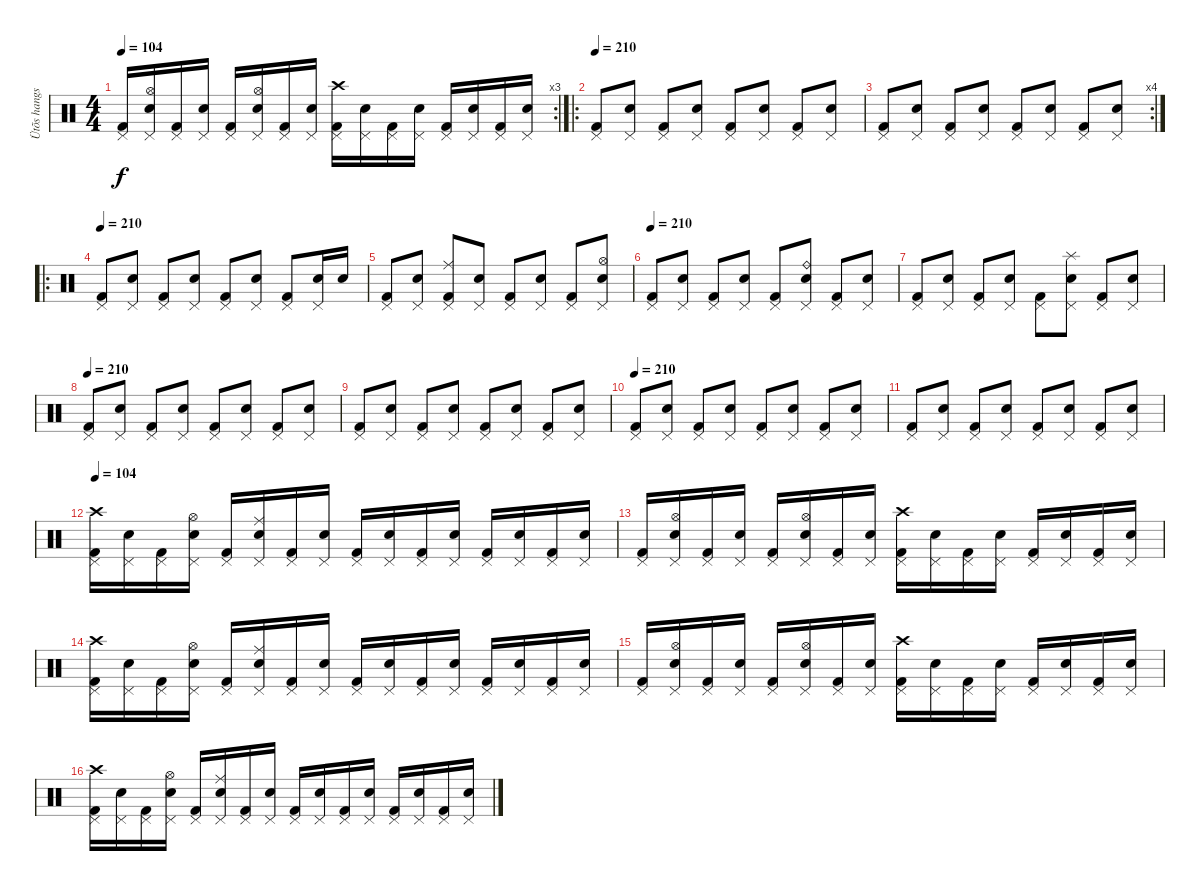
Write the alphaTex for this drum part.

\track ("Ütõs hangszer" "Ütõs hangs") {instrument percussion}
\staff {score}
\articulation defaults
\rc 3
\ts (4 4)
\tempo 104
\clef neutral
\ks c
("Pedal Hi-Hat (hit)" "Kick (hit) 2").16{dy f} ("Hi-Hat (open)" "Pedal Hi-Hat (hit)" "Snare (hit) 2").16 ("Pedal Hi-Hat (hit)" "Kick (hit) 2").16 ("Pedal Hi-Hat (hit)" "Snare (hit) 2").16 ("Pedal Hi-Hat (hit)" "Kick (hit) 2").16 ("Hi-Hat (open)" "Pedal Hi-Hat (hit)" "Snare (hit) 2").16 ("Pedal Hi-Hat (hit)" "Kick (hit) 2").16 ("Pedal Hi-Hat (hit)" "Snare (hit) 2").16 ("Crash high (hit)" "Pedal Hi-Hat (hit)" "Kick (hit) 2").16 ("Pedal Hi-Hat (hit)" "Snare (hit) 2").16 ("Pedal Hi-Hat (hit)" "Kick (hit) 2").16 ("Pedal Hi-Hat (hit)" "Snare (hit) 2").16 ("Pedal Hi-Hat (hit)" "Kick (hit) 2").16 ("Pedal Hi-Hat (hit)" "Snare (hit) 2").16 ("Pedal Hi-Hat (hit)" "Kick (hit) 2").16 ("Pedal Hi-Hat (hit)" "Snare (hit) 2").16 |
\ro
\tempo 210
("Pedal Hi-Hat (hit)" "Kick (hit) 2").8 ("Pedal Hi-Hat (hit)" "Snare (hit) 2").8 ("Pedal Hi-Hat (hit)" "Kick (hit) 2").8 ("Pedal Hi-Hat (hit)" "Snare (hit) 2").8 ("Pedal Hi-Hat (hit)" "Kick (hit) 2").8 ("Pedal Hi-Hat (hit)" "Snare (hit) 2").8 ("Pedal Hi-Hat (hit)" "Kick (hit) 2").8 ("Pedal Hi-Hat (hit)" "Snare (hit) 2").8 |
\rc 4
("Pedal Hi-Hat (hit)" "Kick (hit) 2").8 ("Pedal Hi-Hat (hit)" "Snare (hit) 2").8 ("Pedal Hi-Hat (hit)" "Kick (hit) 2").8 ("Pedal Hi-Hat (hit)" "Snare (hit) 2").8 ("Pedal Hi-Hat (hit)" "Kick (hit) 2").8 ("Pedal Hi-Hat (hit)" "Snare (hit) 2").8 ("Pedal Hi-Hat (hit)" "Kick (hit) 2").8 ("Pedal Hi-Hat (hit)" "Snare (hit) 2").8 |
\ro
\tempo 210
("Pedal Hi-Hat (hit)" "Kick (hit) 2").8 ("Pedal Hi-Hat (hit)" "Snare (hit) 2").8 ("Pedal Hi-Hat (hit)" "Kick (hit) 2").8 ("Pedal Hi-Hat (hit)" "Snare (hit) 2").8 ("Pedal Hi-Hat (hit)" "Kick (hit) 2").8 ("Pedal Hi-Hat (hit)" "Snare (hit) 2").8 ("Pedal Hi-Hat (hit)" "Kick (hit) 2").8 ("Pedal Hi-Hat (hit)" "Snare (hit) 2").16 "Snare (hit) 2".16 |
("Pedal Hi-Hat (hit)" "Kick (hit) 2").8 ("Pedal Hi-Hat (hit)" "Snare (hit) 2").8 ("Ride (middle)" "Pedal Hi-Hat (hit)" "Kick (hit) 2").8 ("Pedal Hi-Hat (hit)" "Snare (hit) 2").8 ("Pedal Hi-Hat (hit)" "Kick (hit) 2").8 ("Pedal Hi-Hat (hit)" "Snare (hit) 2").8 ("Pedal Hi-Hat (hit)" "Kick (hit) 2").8 ("Hi-Hat (open)" "Pedal Hi-Hat (hit)" "Snare (hit) 2").8 |
\tempo 210
("Pedal Hi-Hat (hit)" "Kick (hit) 2").8 ("Pedal Hi-Hat (hit)" "Snare (hit) 2").8 ("Pedal Hi-Hat (hit)" "Kick (hit) 2").8 ("Pedal Hi-Hat (hit)" "Snare (hit) 2").8 ("Pedal Hi-Hat (hit)" "Kick (hit) 2").8 ("Ride (bell)" "Pedal Hi-Hat (hit)" "Snare (hit) 2").8 ("Pedal Hi-Hat (hit)" "Kick (hit) 2").8 ("Pedal Hi-Hat (hit)" "Snare (hit) 2").8 |
("Pedal Hi-Hat (hit)" "Kick (hit) 2").8 ("Pedal Hi-Hat (hit)" "Snare (hit) 2").8 ("Pedal Hi-Hat (hit)" "Kick (hit) 2").8 ("Pedal Hi-Hat (hit)" "Snare (hit) 2").8 ("Pedal Hi-Hat (hit)" "Kick (hit) 2").8 ("Splash (hit)" "Pedal Hi-Hat (hit)" "Snare (hit) 2").8 ("Pedal Hi-Hat (hit)" "Kick (hit) 2").8 ("Pedal Hi-Hat (hit)" "Snare (hit) 2").8 |
\tempo 210
("Pedal Hi-Hat (hit)" "Kick (hit) 2").8 ("Pedal Hi-Hat (hit)" "Snare (hit) 2").8 ("Pedal Hi-Hat (hit)" "Kick (hit) 2").8 ("Pedal Hi-Hat (hit)" "Snare (hit) 2").8 ("Pedal Hi-Hat (hit)" "Kick (hit) 2").8 ("Pedal Hi-Hat (hit)" "Snare (hit) 2").8 ("Pedal Hi-Hat (hit)" "Kick (hit) 2").8 ("Pedal Hi-Hat (hit)" "Snare (hit) 2").8 |
("Pedal Hi-Hat (hit)" "Kick (hit) 2").8 ("Pedal Hi-Hat (hit)" "Snare (hit) 2").8 ("Pedal Hi-Hat (hit)" "Kick (hit) 2").8 ("Pedal Hi-Hat (hit)" "Snare (hit) 2").8 ("Pedal Hi-Hat (hit)" "Kick (hit) 2").8 ("Pedal Hi-Hat (hit)" "Snare (hit) 2").8 ("Pedal Hi-Hat (hit)" "Kick (hit) 2").8 ("Pedal Hi-Hat (hit)" "Snare (hit) 2").8 |
\tempo 210
("Pedal Hi-Hat (hit)" "Kick (hit) 2").8 ("Pedal Hi-Hat (hit)" "Snare (hit) 2").8 ("Pedal Hi-Hat (hit)" "Kick (hit) 2").8 ("Pedal Hi-Hat (hit)" "Snare (hit) 2").8 ("Pedal Hi-Hat (hit)" "Kick (hit) 2").8 ("Pedal Hi-Hat (hit)" "Snare (hit) 2").8 ("Pedal Hi-Hat (hit)" "Kick (hit) 2").8 ("Pedal Hi-Hat (hit)" "Snare (hit) 2").8 |
("Pedal Hi-Hat (hit)" "Kick (hit) 2").8 ("Pedal Hi-Hat (hit)" "Snare (hit) 2").8 ("Pedal Hi-Hat (hit)" "Kick (hit) 2").8 ("Pedal Hi-Hat (hit)" "Snare (hit) 2").8 ("Pedal Hi-Hat (hit)" "Kick (hit) 2").8 ("Pedal Hi-Hat (hit)" "Snare (hit) 2").8 ("Pedal Hi-Hat (hit)" "Kick (hit) 2").8 ("Pedal Hi-Hat (hit)" "Snare (hit) 2").8 |
\tempo 104
("Crash high (hit)" "Pedal Hi-Hat (hit)" "Kick (hit) 2").16 ("Pedal Hi-Hat (hit)" "Snare (hit) 2").16 ("Pedal Hi-Hat (hit)" "Kick (hit) 2").16 ("Hi-Hat (open)" "Pedal Hi-Hat (hit)" "Snare (hit) 2").16 ("Pedal Hi-Hat (hit)" "Kick (hit) 2").16 ("Ride (middle)" "Pedal Hi-Hat (hit)" "Snare (hit) 2").16 ("Pedal Hi-Hat (hit)" "Kick (hit) 2").16 ("Pedal Hi-Hat (hit)" "Snare (hit) 2").16 ("Pedal Hi-Hat (hit)" "Kick (hit) 2").16 ("Pedal Hi-Hat (hit)" "Snare (hit) 2").16 ("Pedal Hi-Hat (hit)" "Kick (hit) 2").16 ("Pedal Hi-Hat (hit)" "Snare (hit) 2").16 ("Pedal Hi-Hat (hit)" "Kick (hit) 2").16 ("Pedal Hi-Hat (hit)" "Snare (hit) 2").16 ("Pedal Hi-Hat (hit)" "Kick (hit) 2").16 ("Pedal Hi-Hat (hit)" "Snare (hit) 2").16 |
("Pedal Hi-Hat (hit)" "Kick (hit) 2").16 ("Hi-Hat (open)" "Pedal Hi-Hat (hit)" "Snare (hit) 2").16 ("Pedal Hi-Hat (hit)" "Kick (hit) 2").16 ("Pedal Hi-Hat (hit)" "Snare (hit) 2").16 ("Pedal Hi-Hat (hit)" "Kick (hit) 2").16 ("Hi-Hat (open)" "Pedal Hi-Hat (hit)" "Snare (hit) 2").16 ("Pedal Hi-Hat (hit)" "Kick (hit) 2").16 ("Pedal Hi-Hat (hit)" "Snare (hit) 2").16 ("Crash high (hit)" "Pedal Hi-Hat (hit)" "Kick (hit) 2").16 ("Pedal Hi-Hat (hit)" "Snare (hit) 2").16 ("Pedal Hi-Hat (hit)" "Kick (hit) 2").16 ("Pedal Hi-Hat (hit)" "Snare (hit) 2").16 ("Pedal Hi-Hat (hit)" "Kick (hit) 2").16 ("Pedal Hi-Hat (hit)" "Snare (hit) 2").16 ("Pedal Hi-Hat (hit)" "Kick (hit) 2").16 ("Pedal Hi-Hat (hit)" "Snare (hit) 2").16 |
("Crash high (hit)" "Pedal Hi-Hat (hit)" "Kick (hit) 2").16 ("Pedal Hi-Hat (hit)" "Snare (hit) 2").16 ("Pedal Hi-Hat (hit)" "Kick (hit) 2").16 ("Hi-Hat (open)" "Pedal Hi-Hat (hit)" "Snare (hit) 2").16 ("Pedal Hi-Hat (hit)" "Kick (hit) 2").16 ("Ride (middle)" "Pedal Hi-Hat (hit)" "Snare (hit) 2").16 ("Pedal Hi-Hat (hit)" "Kick (hit) 2").16 ("Pedal Hi-Hat (hit)" "Snare (hit) 2").16 ("Pedal Hi-Hat (hit)" "Kick (hit) 2").16 ("Pedal Hi-Hat (hit)" "Snare (hit) 2").16 ("Pedal Hi-Hat (hit)" "Kick (hit) 2").16 ("Pedal Hi-Hat (hit)" "Snare (hit) 2").16 ("Pedal Hi-Hat (hit)" "Kick (hit) 2").16 ("Pedal Hi-Hat (hit)" "Snare (hit) 2").16 ("Pedal Hi-Hat (hit)" "Kick (hit) 2").16 ("Pedal Hi-Hat (hit)" "Snare (hit) 2").16 |
("Pedal Hi-Hat (hit)" "Kick (hit) 2").16 ("Hi-Hat (open)" "Pedal Hi-Hat (hit)" "Snare (hit) 2").16 ("Pedal Hi-Hat (hit)" "Kick (hit) 2").16 ("Pedal Hi-Hat (hit)" "Snare (hit) 2").16 ("Pedal Hi-Hat (hit)" "Kick (hit) 2").16 ("Hi-Hat (open)" "Pedal Hi-Hat (hit)" "Snare (hit) 2").16 ("Pedal Hi-Hat (hit)" "Kick (hit) 2").16 ("Pedal Hi-Hat (hit)" "Snare (hit) 2").16 ("Crash high (hit)" "Pedal Hi-Hat (hit)" "Kick (hit) 2").16 ("Pedal Hi-Hat (hit)" "Snare (hit) 2").16 ("Pedal Hi-Hat (hit)" "Kick (hit) 2").16 ("Pedal Hi-Hat (hit)" "Snare (hit) 2").16 ("Pedal Hi-Hat (hit)" "Kick (hit) 2").16 ("Pedal Hi-Hat (hit)" "Snare (hit) 2").16 ("Pedal Hi-Hat (hit)" "Kick (hit) 2").16 ("Pedal Hi-Hat (hit)" "Snare (hit) 2").16 |
("Crash high (hit)" "Pedal Hi-Hat (hit)" "Kick (hit) 2").16 ("Pedal Hi-Hat (hit)" "Snare (hit) 2").16 ("Pedal Hi-Hat (hit)" "Kick (hit) 2").16 ("Hi-Hat (open)" "Pedal Hi-Hat (hit)" "Snare (hit) 2").16 ("Pedal Hi-Hat (hit)" "Kick (hit) 2").16 ("Ride (middle)" "Pedal Hi-Hat (hit)" "Snare (hit) 2").16 ("Pedal Hi-Hat (hit)" "Kick (hit) 2").16 ("Pedal Hi-Hat (hit)" "Snare (hit) 2").16 ("Pedal Hi-Hat (hit)" "Kick (hit) 2").16 ("Pedal Hi-Hat (hit)" "Snare (hit) 2").16 ("Pedal Hi-Hat (hit)" "Kick (hit) 2").16 ("Pedal Hi-Hat (hit)" "Snare (hit) 2").16 ("Pedal Hi-Hat (hit)" "Kick (hit) 2").16 ("Pedal Hi-Hat (hit)" "Snare (hit) 2").16 ("Pedal Hi-Hat (hit)" "Kick (hit) 2").16 ("Pedal Hi-Hat (hit)" "Snare (hit) 2").16
